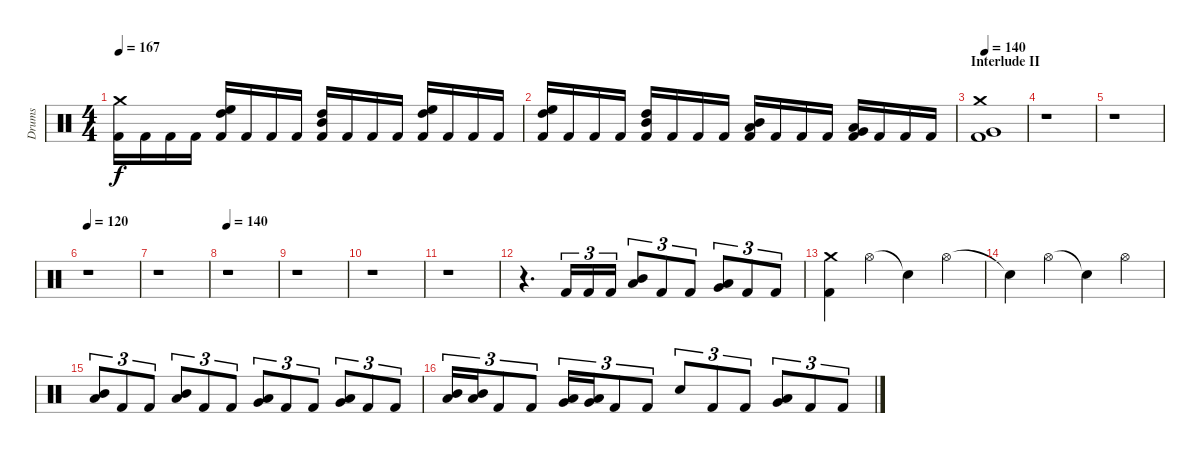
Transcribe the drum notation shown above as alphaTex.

\track ("Drums" "Drums") {instrument percussion}
\staff {score}
\articulation defaults
\ts (4 4)
\tempo 167
\clef neutral
\ks c
("Kick (hit) 2" "Crash medium (hit)").16{dy f} "Kick (hit) 2".16 "Kick (hit) 2".16 "Kick (hit) 2".16 ("Kick (hit) 2" "High Floor Tom (hit)" "High Tom (hit)").16 "Kick (hit) 2".16 "Kick (hit) 2".16 "Kick (hit) 2".16 ("Kick (hit) 2" "High Tom (hit)" "Mid Tom (hit)").16 "Kick (hit) 2".16 "Kick (hit) 2".16 "Kick (hit) 2".16 ("Kick (hit) 2" "High Floor Tom (hit)" "High Tom (hit)").16 "Kick (hit) 2".16 "Kick (hit) 2".16 "Kick (hit) 2".16 |
("Kick (hit) 2" "High Floor Tom (hit)" "High Tom (hit)").16 "Kick (hit) 2".16 "Kick (hit) 2".16 "Kick (hit) 2".16 ("Kick (hit) 2" "Mid Tom (hit)" "High Tom (hit)").16 "Kick (hit) 2".16 "Kick (hit) 2".16 "Kick (hit) 2".16 ("Kick (hit) 2" "Low Tom (hit)" "Mid Tom (hit)").16 "Kick (hit) 2".16 "Kick (hit) 2".16 "Kick (hit) 2".16 ("Kick (hit) 2" "Very Low Tom (hit)" "Low Tom (hit)").16 "Kick (hit) 2".16 "Kick (hit) 2".16 "Kick (hit) 2".16 |
\section ("" "Interlude II")
\tempo 140
("Kick (hit) 2" "Very Low Tom (hit)" "Crash medium (hit)").1 |
r.1 |
r.1 |
\tempo 120
r.1 |
r.1 |
\tempo 140
r.1 |
r.1 |
r.1 |
r.1 |
r.4{d} "Kick (hit) 2".16{tu (3 2)} "Kick (hit) 2".16{tu (3 2)} "Kick (hit) 2".16{tu (3 2)} ("Low Tom (hit)" "Mid Tom (hit)").8{tu (3 2)} "Kick (hit) 2".8{tu (3 2)} "Kick (hit) 2".8{tu (3 2)} ("Very Low Tom (hit)" "Low Tom (hit)").8{tu (3 2)} "Kick (hit) 2".8{tu (3 2)} "Kick (hit) 2".8{tu (3 2)} |
("Kick (hit) 2" "Crash medium (hit)").4 "Hi-Hat (open)".4 "Snare (hit)"{t}.4 "Hi-Hat (open)".4 |
"Snare (hit)"{t}.4 "Hi-Hat (open)".4 "Snare (hit)"{t}.4 "Hi-Hat (open)".4 |
("Low Tom (hit)" "Mid Tom (hit)").8{tu (3 2)} "Kick (hit) 2".8{tu (3 2)} "Kick (hit) 2".8{tu (3 2)} ("Low Tom (hit)" "Mid Tom (hit)").8{tu (3 2)} "Kick (hit) 2".8{tu (3 2)} "Kick (hit) 2".8{tu (3 2)} ("Very Low Tom (hit)" "Low Tom (hit)").8{tu (3 2)} "Kick (hit) 2".8{tu (3 2)} "Kick (hit) 2".8{tu (3 2)} ("Very Low Tom (hit)" "Low Tom (hit)").8{tu (3 2)} "Kick (hit) 2".8{tu (3 2)} "Kick (hit) 2".8{tu (3 2)} |
("Low Tom (hit)" "Mid Tom (hit)").16{tu (3 2)} ("Low Tom (hit)" "Mid Tom (hit)").16{tu (3 2)} "Kick (hit) 2".8{tu (3 2)} "Kick (hit) 2".8{tu (3 2)} ("Very Low Tom (hit)" "Low Tom (hit)").16{tu (3 2)} ("Very Low Tom (hit)" "Low Tom (hit)").16{tu (3 2)} "Kick (hit) 2".8{tu (3 2)} "Kick (hit) 2".8{tu (3 2)} "Electric Snare (hit)".8{tu (3 2)} "Kick (hit) 2".8{tu (3 2)} "Kick (hit) 2".8{tu (3 2)} ("Very Low Tom (hit)" "Low Tom (hit)").8{tu (3 2)} "Kick (hit) 2".8{tu (3 2)} "Kick (hit) 2".8{tu (3 2)}
